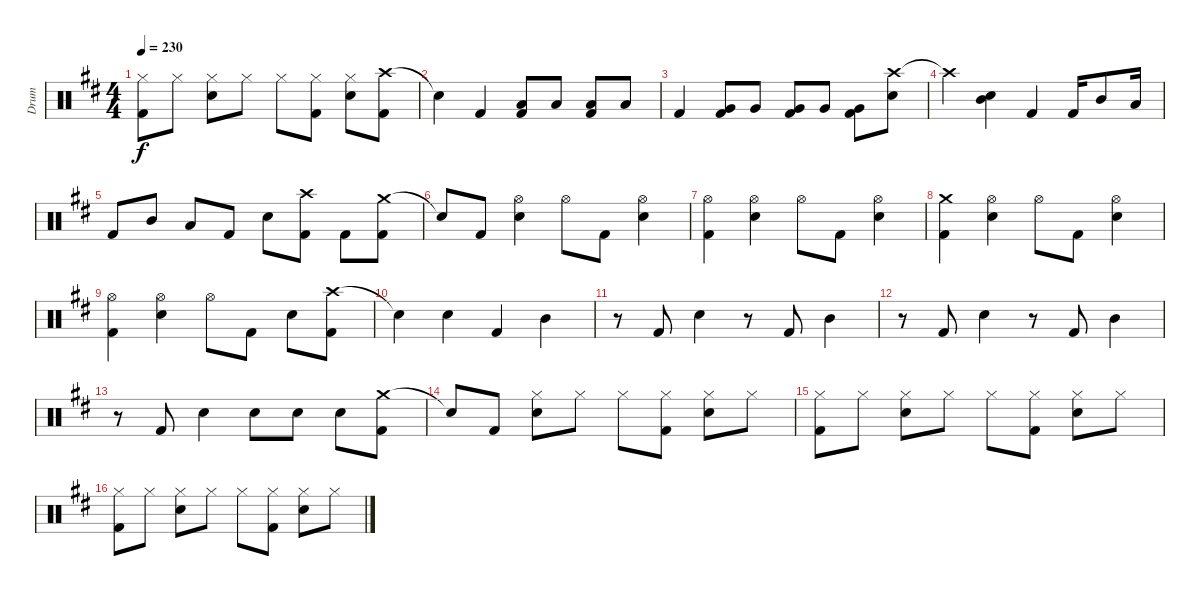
\track ("Drum" "Drum") {instrument percussion}
\staff {score}
\articulation defaults
\ts (4 4)
\tempo 230
\clef neutral
\ks d
("Hi-Hat (closed)" "Kick (hit) 2").8{dy f} "Hi-Hat (closed)".8 ("Hi-Hat (closed)" "Snare (hit) 2").8 "Hi-Hat (closed)".8 "Hi-Hat (closed)".8 ("Hi-Hat (closed)" "Kick (hit) 2").8 ("Hi-Hat (closed)" "Snare (hit) 2").8 ("Crash high (hit)" "Kick (hit) 2").8 |
"Snare (hit)"{t}.4 "Kick (hit) 2".4 ("Low Tom (hit)" "Kick (hit) 2").8 "Low Tom (hit)".8 ("Low Tom (hit)" "Kick (hit) 2").8 "Low Tom (hit)".8 |
"Kick (hit) 2".4 ("Very Low Tom (hit)" "Kick (hit) 2").8 "Very Low Tom (hit)".8 ("Very Low Tom (hit)" "Kick (hit) 2").8 "Very Low Tom (hit)".8 ("Very Low Tom (hit)" "Kick (hit) 2").8 ("Crash high (hit)" "Snare (hit) 2").8 |
"Crash high (hit)"{t}.4 ("Mid Tom (hit)" "Snare (hit) 2").4 "Kick (hit) 2".4 "Kick (hit) 2".16 "Mid Tom (hit)".8 "Low Tom (hit)".16 |
"Kick (hit) 2".8 "Mid Tom (hit)".8 "Low Tom (hit)".8 "Kick (hit) 2".8 "Snare (hit) 2".8 ("Crash high (hit)" "Kick (hit) 2").8 "Kick (hit) 2".8 ("Crash medium (hit)" "Kick (hit) 2").8 |
"Snare (hit)"{t}.8 "Kick (hit) 2".8 ("Hi-Hat (open)" "Snare (hit) 2").4 "Hi-Hat (open)".8 "Kick (hit) 2".8 ("Hi-Hat (open)" "Snare (hit) 2").4 |
("Hi-Hat (open)" "Kick (hit) 2").4 ("Hi-Hat (open)" "Snare (hit) 2").4 "Hi-Hat (open)".8 "Kick (hit) 2".8 ("Hi-Hat (open)" "Snare (hit) 2").4 |
("Crash medium (hit)" "Kick (hit) 2").4 ("Hi-Hat (open)" "Snare (hit) 2").4 "Hi-Hat (open)".8 "Kick (hit) 2".8 ("Hi-Hat (open)" "Snare (hit) 2").4 |
("Hi-Hat (open)" "Kick (hit) 2").4 ("Hi-Hat (open)" "Snare (hit) 2").4 "Hi-Hat (open)".8 "Kick (hit) 2".8 "Snare (hit) 2".8 ("Crash high (hit)" "Kick (hit) 2").8 |
"Snare (hit)"{t}.4 "Snare (hit) 2".4 "Kick (hit) 2".4 "Mid Tom (hit)".4 |
r.8 "Kick (hit) 2".8 "Snare (hit) 2".4 r.8 "Kick (hit) 2".8 "Mid Tom (hit)".4 |
r.8 "Kick (hit) 2".8 "Snare (hit) 2".4 r.8 "Kick (hit) 2".8 "Mid Tom (hit)".4 |
r.8 "Kick (hit) 2".8 "Snare (hit) 2".4 "Snare (hit) 2".8 "Snare (hit) 2".8 "Snare (hit) 2".8 ("Crash medium (hit)" "Kick (hit) 2").8 |
"Snare (hit)"{t}.8 "Kick (hit) 2".8 ("Hi-Hat (closed)" "Snare (hit) 2").8 "Hi-Hat (closed)".8 "Hi-Hat (closed)".8 ("Hi-Hat (closed)" "Kick (hit) 2").8 ("Hi-Hat (closed)" "Snare (hit) 2").8 "Hi-Hat (closed)".8 |
("Hi-Hat (closed)" "Kick (hit) 2").8 "Hi-Hat (closed)".8 ("Hi-Hat (closed)" "Snare (hit) 2").8 "Hi-Hat (closed)".8 "Hi-Hat (closed)".8 ("Hi-Hat (closed)" "Kick (hit) 2").8 ("Hi-Hat (closed)" "Snare (hit) 2").8 "Hi-Hat (closed)".8 |
("Hi-Hat (closed)" "Kick (hit) 2").8 "Hi-Hat (closed)".8 ("Hi-Hat (closed)" "Snare (hit) 2").8 "Hi-Hat (closed)".8 "Hi-Hat (closed)".8 ("Hi-Hat (closed)" "Kick (hit) 2").8 ("Hi-Hat (closed)" "Snare (hit) 2").8 "Hi-Hat (closed)".8
